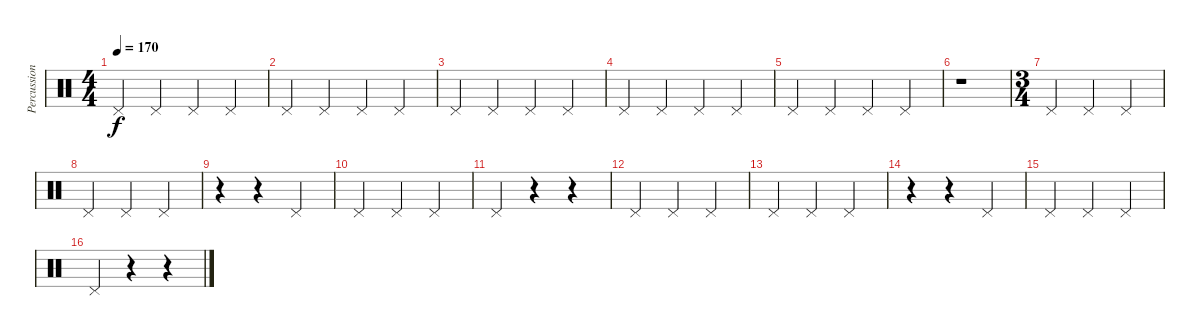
\track ("Percussion" "Percussion") {instrument percussion}
\staff {score}
\articulation defaults
\ts (4 4)
\tempo 170
\clef neutral
\ks c "Pedal Hi-Hat (hit)".4{dy f} "Pedal Hi-Hat (hit)".4 "Pedal Hi-Hat (hit)".4 "Pedal Hi-Hat (hit)".4
|
"Pedal Hi-Hat (hit)".4 "Pedal Hi-Hat (hit)".4 "Pedal Hi-Hat (hit)".4 "Pedal Hi-Hat (hit)".4 |
"Pedal Hi-Hat (hit)".4 "Pedal Hi-Hat (hit)".4 "Pedal Hi-Hat (hit)".4 "Pedal Hi-Hat (hit)".4 |
"Pedal Hi-Hat (hit)".4 "Pedal Hi-Hat (hit)".4 "Pedal Hi-Hat (hit)".4 "Pedal Hi-Hat (hit)".4 |
"Pedal Hi-Hat (hit)".4 "Pedal Hi-Hat (hit)".4 "Pedal Hi-Hat (hit)".4 "Pedal Hi-Hat (hit)".4 |
r.1 |
\ts (3 4)
"Pedal Hi-Hat (hit)".4 "Pedal Hi-Hat (hit)".4 "Pedal Hi-Hat (hit)".4 |
"Pedal Hi-Hat (hit)".4 "Pedal Hi-Hat (hit)".4 "Pedal Hi-Hat (hit)".4 |
r.4 r.4 "Pedal Hi-Hat (hit)".4 |
"Pedal Hi-Hat (hit)".4 "Pedal Hi-Hat (hit)".4 "Pedal Hi-Hat (hit)".4 |
"Pedal Hi-Hat (hit)".4 r.4 r.4 |
"Pedal Hi-Hat (hit)".4 "Pedal Hi-Hat (hit)".4 "Pedal Hi-Hat (hit)".4 |
"Pedal Hi-Hat (hit)".4 "Pedal Hi-Hat (hit)".4 "Pedal Hi-Hat (hit)".4 |
r.4 r.4 "Pedal Hi-Hat (hit)".4 |
"Pedal Hi-Hat (hit)".4 "Pedal Hi-Hat (hit)".4 "Pedal Hi-Hat (hit)".4 |
"Pedal Hi-Hat (hit)".4 r.4 r.4
